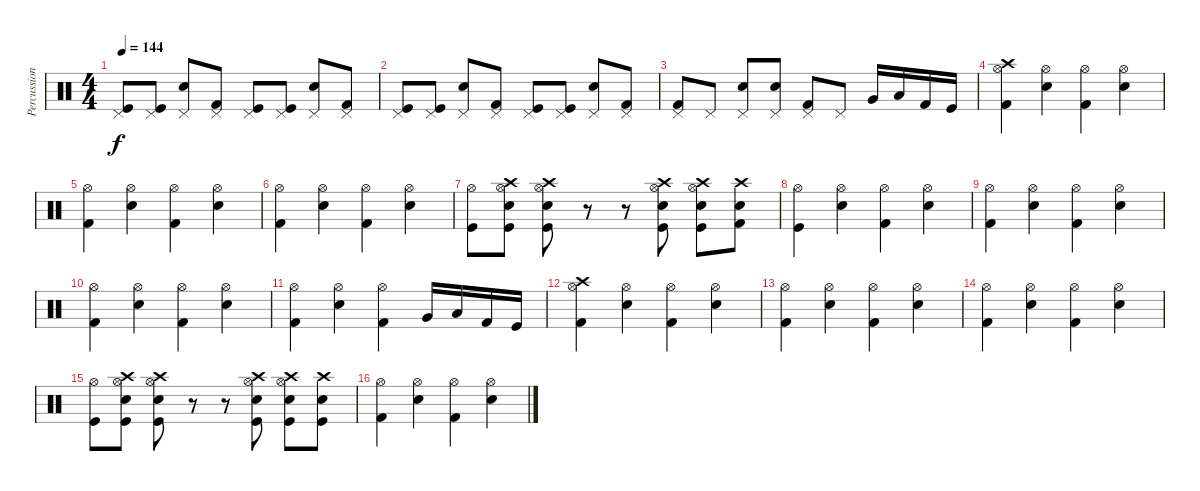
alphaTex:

\track ("Percussion" "Percussion") {instrument percussion}
\staff {score}
\articulation defaults
\ts (4 4)
\tempo 144
\clef neutral
\ks c
("Pedal Hi-Hat (hit)" "Kick (hit)").8{dy f} ("Pedal Hi-Hat (hit)" "Kick (hit)").8 ("Pedal Hi-Hat (hit)" "Snare (hit) 2").8 ("Pedal Hi-Hat (hit)" "Kick (hit) 2").8 ("Pedal Hi-Hat (hit)" "Kick (hit)").8 ("Pedal Hi-Hat (hit)" "Kick (hit)").8 ("Pedal Hi-Hat (hit)" "Snare (hit) 2").8 ("Pedal Hi-Hat (hit)" "Kick (hit) 2").8 |
("Pedal Hi-Hat (hit)" "Kick (hit)").8 ("Pedal Hi-Hat (hit)" "Kick (hit)").8 ("Pedal Hi-Hat (hit)" "Snare (hit) 2").8 ("Pedal Hi-Hat (hit)" "Kick (hit) 2").8 ("Pedal Hi-Hat (hit)" "Kick (hit)").8 ("Pedal Hi-Hat (hit)" "Kick (hit)").8 ("Pedal Hi-Hat (hit)" "Snare (hit) 2").8 ("Pedal Hi-Hat (hit)" "Kick (hit) 2").8 |
("Pedal Hi-Hat (hit)" "Kick (hit) 2").8 "Pedal Hi-Hat (hit)".8 ("Pedal Hi-Hat (hit)" "Snare (hit) 2").8 ("Pedal Hi-Hat (hit)" "Snare (hit) 2").8 ("Pedal Hi-Hat (hit)" "Kick (hit) 2").8 "Pedal Hi-Hat (hit)".8 "Very Low Tom (hit)".16 "Low Floor Tom (hit)".16 "Kick (hit) 2".16 "Kick (hit)".16 |
("Hi-Hat (open)" "Kick (hit) 2" "Crash high (hit)").4 ("Hi-Hat (open)" "Snare (hit) 2").4 ("Hi-Hat (open)" "Kick (hit) 2").4 ("Hi-Hat (open)" "Snare (hit) 2").4 |
("Hi-Hat (open)" "Kick (hit) 2").4 ("Hi-Hat (open)" "Snare (hit) 2").4 ("Hi-Hat (open)" "Kick (hit) 2").4 ("Hi-Hat (open)" "Snare (hit) 2").4 |
("Hi-Hat (open)" "Kick (hit) 2").4 ("Hi-Hat (open)" "Snare (hit) 2").4 ("Hi-Hat (open)" "Kick (hit) 2").4 ("Hi-Hat (open)" "Snare (hit) 2").4 |
("Hi-Hat (open)" "Kick (hit)").8 ("Crash high (hit)" "Kick (hit)" "Snare (hit) 2" "Hi-Hat (open)").8 ("Crash high (hit)" "Kick (hit)" "Snare (hit) 2" "Hi-Hat (open)").8 r.8 r.8 ("Crash high (hit)" "Snare (hit) 2" "Kick (hit)" "Hi-Hat (open)").8 ("Crash high (hit)" "Snare (hit) 2" "Kick (hit)" "Hi-Hat (open)").8 ("Crash high (hit)" "Kick (hit) 2" "Snare (hit) 2").8 |
("Hi-Hat (open)" "Kick (hit)").4 ("Hi-Hat (open)" "Snare (hit) 2").4 ("Hi-Hat (open)" "Kick (hit) 2").4 ("Hi-Hat (open)" "Snare (hit) 2").4 |
("Hi-Hat (open)" "Kick (hit) 2").4 ("Hi-Hat (open)" "Snare (hit) 2").4 ("Hi-Hat (open)" "Kick (hit) 2").4 ("Hi-Hat (open)" "Snare (hit) 2").4 |
("Hi-Hat (open)" "Kick (hit) 2").4 ("Hi-Hat (open)" "Snare (hit) 2").4 ("Hi-Hat (open)" "Kick (hit) 2").4 ("Hi-Hat (open)" "Snare (hit) 2").4 |
("Hi-Hat (open)" "Kick (hit) 2").4 ("Hi-Hat (open)" "Snare (hit) 2").4 ("Hi-Hat (open)" "Kick (hit) 2").4 "Very Low Tom (hit)".16 "Low Floor Tom (hit)".16 "Kick (hit) 2".16 "Kick (hit)".16 |
("Hi-Hat (open)" "Kick (hit) 2" "Crash high (hit)").4 ("Hi-Hat (open)" "Snare (hit) 2").4 ("Hi-Hat (open)" "Kick (hit) 2").4 ("Hi-Hat (open)" "Snare (hit) 2").4 |
("Hi-Hat (open)" "Kick (hit) 2").4 ("Hi-Hat (open)" "Snare (hit) 2").4 ("Hi-Hat (open)" "Kick (hit) 2").4 ("Hi-Hat (open)" "Snare (hit) 2").4 |
("Hi-Hat (open)" "Kick (hit) 2").4 ("Hi-Hat (open)" "Snare (hit) 2").4 ("Hi-Hat (open)" "Kick (hit) 2").4 ("Hi-Hat (open)" "Snare (hit) 2").4 |
("Hi-Hat (open)" "Kick (hit)").8 ("Crash high (hit)" "Kick (hit)" "Snare (hit) 2" "Hi-Hat (open)").8 ("Crash high (hit)" "Kick (hit)" "Snare (hit) 2" "Hi-Hat (open)").8 r.8 r.8 ("Crash high (hit)" "Snare (hit) 2" "Kick (hit)" "Hi-Hat (open)").8 ("Crash high (hit)" "Snare (hit) 2" "Kick (hit)" "Hi-Hat (open)").8 ("Crash high (hit)" "Kick (hit)" "Snare (hit) 2").8 |
("Hi-Hat (open)" "Kick (hit) 2").4 ("Hi-Hat (open)" "Snare (hit) 2").4 ("Hi-Hat (open)" "Kick (hit) 2").4 ("Hi-Hat (open)" "Snare (hit) 2").4
